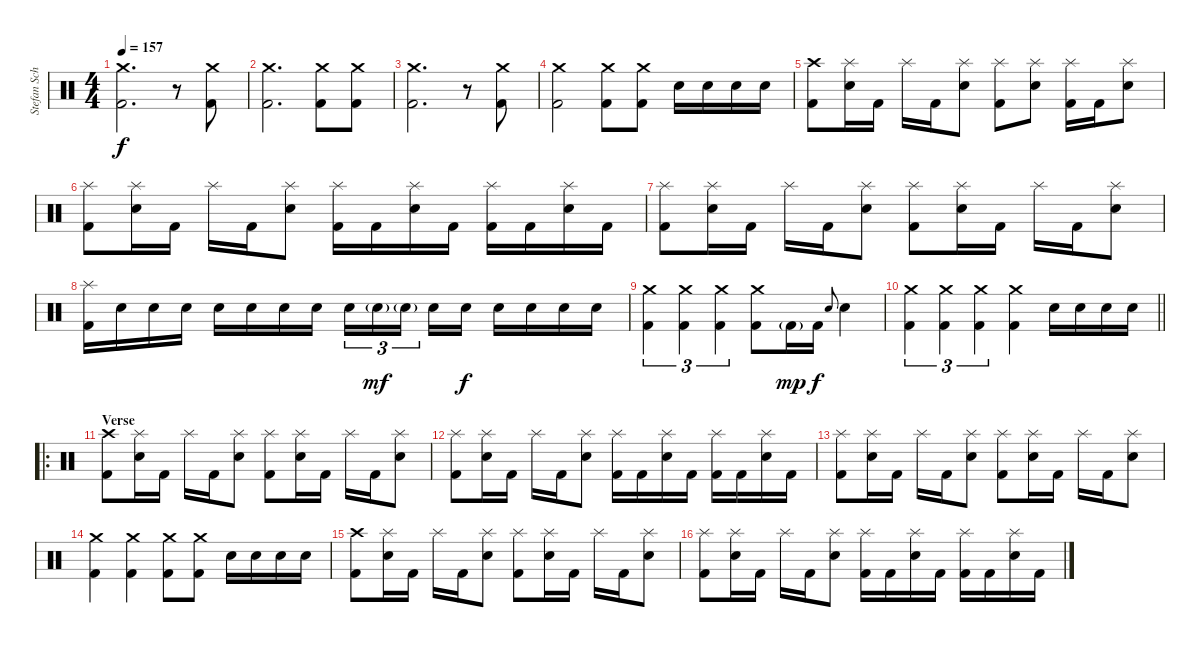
\track ("Stefan Schwarzmann" "Stefan Sch") {instrument percussion}
\staff {score}
\articulation defaults
\ts (4 4)
\tempo 157
\clef neutral
\ks c
("Crash medium (hit)" "Kick (hit) 2").2{d dy f} r.8 ("Crash medium (hit)" "Kick (hit) 2").8 |
("Crash medium (hit)" "Kick (hit) 2").2{d} ("Crash medium (hit)" "Kick (hit) 2").8 ("Crash medium (hit)" "Kick (hit) 2").8 |
("Crash medium (hit)" "Kick (hit) 2").2{d} r.8 ("Crash medium (hit)" "Kick (hit) 2").8 |
("Crash medium (hit)" "Kick (hit) 2").2 ("Crash medium (hit)" "Kick (hit) 2").8 ("Crash medium (hit)" "Kick (hit) 2").8 "Snare (hit) 2".16 "Snare (hit) 2".16 "Snare (hit) 2".16 "Snare (hit) 2".16 |
("Crash high (hit)" "Kick (hit) 2").8 ("Splash (hit)" "Snare (hit) 2").16 "Kick (hit) 2".16 "Splash (hit)".16 "Kick (hit) 2".16 ("Splash (hit)" "Snare (hit) 2").8 ("Splash (hit)" "Kick (hit) 2").8 ("Splash (hit)" "Snare (hit) 2").8 ("Splash (hit)" "Kick (hit) 2").16 "Kick (hit) 2".16 ("Splash (hit)" "Snare (hit) 2").8 |
("Splash (hit)" "Kick (hit) 2").8 ("Splash (hit)" "Snare (hit) 2").16 "Kick (hit) 2".16 "Splash (hit)".16 "Kick (hit) 2".16 ("Splash (hit)" "Snare (hit) 2").8 ("Splash (hit)" "Kick (hit) 2").16 "Kick (hit) 2".16 ("Splash (hit)" "Snare (hit) 2").16 "Kick (hit) 2".16 ("Splash (hit)" "Kick (hit) 2").16 "Kick (hit) 2".16 ("Splash (hit)" "Snare (hit) 2").16 "Kick (hit) 2".16 |
("Splash (hit)" "Kick (hit) 2").8 ("Splash (hit)" "Snare (hit) 2").16 "Kick (hit) 2".16 "Splash (hit)".16 "Kick (hit) 2".16 ("Splash (hit)" "Snare (hit) 2").8 ("Splash (hit)" "Kick (hit) 2").8 ("Splash (hit)" "Snare (hit) 2").16 "Kick (hit) 2".16 "Splash (hit)".16 "Kick (hit) 2".16 ("Splash (hit)" "Snare (hit) 2").8 |
("Splash (hit)" "Kick (hit) 2").16 "Snare (hit) 2".16 "Snare (hit) 2".16 "Snare (hit) 2".16 "Snare (hit) 2".16 "Snare (hit) 2".16 "Snare (hit) 2".16 "Snare (hit) 2".16 "Snare (hit) 2".16{tu (3 2)} "Snare (hit) 2"{g}.16{tu (3 2) dy mf} "Snare (hit) 2"{g}.16{tu (3 2) beam splitsecondary} "Snare (hit) 2".16 "Snare (hit) 2".16{dy f} "Snare (hit) 2".16 "Snare (hit) 2".16 "Snare (hit) 2".16 "Snare (hit) 2".16 |
("Crash medium (hit)" "Kick (hit) 2").4{tu (3 2)} ("Crash medium (hit)" "Kick (hit) 2").4{tu (3 2)} ("Crash medium (hit)" "Kick (hit) 2").4{tu (3 2)} ("Crash medium (hit)" "Kick (hit) 2").8 "Kick (hit) 2"{g}.16{dy mp} "Kick (hit) 2".16{dy f} "Snare (hit) 2".8{gr onbeat} "Snare (hit) 2".4 |
\barLineRight lightlight
("Crash medium (hit)" "Kick (hit) 2").4{tu (3 2)} ("Crash medium (hit)" "Kick (hit) 2").4{tu (3 2)} ("Crash medium (hit)" "Kick (hit) 2").4{tu (3 2)} ("Crash medium (hit)" "Kick (hit) 2").4 "Snare (hit) 2".16 "Snare (hit) 2".16 "Snare (hit) 2".16 "Snare (hit) 2".16 |
\ro
\section ("" "Verse")
("Crash high (hit)" "Kick (hit) 2").8 ("Splash (hit)" "Snare (hit) 2").16 "Kick (hit) 2".16 "Splash (hit)".16 "Kick (hit) 2".16 ("Splash (hit)" "Snare (hit) 2").8 ("Splash (hit)" "Kick (hit) 2").8 ("Splash (hit)" "Snare (hit) 2").16 "Kick (hit) 2".16 "Splash (hit)".16 "Kick (hit) 2".16 ("Splash (hit)" "Snare (hit) 2").8 |
("Splash (hit)" "Kick (hit) 2").8 ("Splash (hit)" "Snare (hit) 2").16 "Kick (hit) 2".16 "Splash (hit)".16 "Kick (hit) 2".16 ("Splash (hit)" "Snare (hit) 2").8 ("Splash (hit)" "Kick (hit) 2").16 "Kick (hit) 2".16 ("Splash (hit)" "Snare (hit) 2").16 "Kick (hit) 2".16 ("Splash (hit)" "Kick (hit) 2").16 "Kick (hit) 2".16 ("Splash (hit)" "Snare (hit) 2").16 "Kick (hit) 2".16 |
("Splash (hit)" "Kick (hit) 2").8 ("Splash (hit)" "Snare (hit) 2").16 "Kick (hit) 2".16 "Splash (hit)".16 "Kick (hit) 2".16 ("Splash (hit)" "Snare (hit) 2").8 ("Splash (hit)" "Kick (hit) 2").8 ("Splash (hit)" "Snare (hit) 2").16 "Kick (hit) 2".16 "Splash (hit)".16 "Kick (hit) 2".16 ("Splash (hit)" "Snare (hit) 2").8 |
("Crash medium (hit)" "Kick (hit) 2").4 ("Crash medium (hit)" "Kick (hit) 2").4 ("Crash medium (hit)" "Kick (hit) 2").8 ("Crash medium (hit)" "Kick (hit) 2").8 "Snare (hit) 2".16 "Snare (hit) 2".16 "Snare (hit) 2".16 "Snare (hit) 2".16 |
("Crash high (hit)" "Kick (hit) 2").8 ("Splash (hit)" "Snare (hit) 2").16 "Kick (hit) 2".16 "Splash (hit)".16 "Kick (hit) 2".16 ("Splash (hit)" "Snare (hit) 2").8 ("Splash (hit)" "Kick (hit) 2").8 ("Splash (hit)" "Snare (hit) 2").16 "Kick (hit) 2".16 "Splash (hit)".16 "Kick (hit) 2".16 ("Splash (hit)" "Snare (hit) 2").8 |
("Splash (hit)" "Kick (hit) 2").8 ("Splash (hit)" "Snare (hit) 2").16 "Kick (hit) 2".16 "Splash (hit)".16 "Kick (hit) 2".16 ("Splash (hit)" "Snare (hit) 2").8 ("Splash (hit)" "Kick (hit) 2").16 "Kick (hit) 2".16 ("Splash (hit)" "Snare (hit) 2").16 "Kick (hit) 2".16 ("Splash (hit)" "Kick (hit) 2").16 "Kick (hit) 2".16 ("Splash (hit)" "Snare (hit) 2").16 "Kick (hit) 2".16
